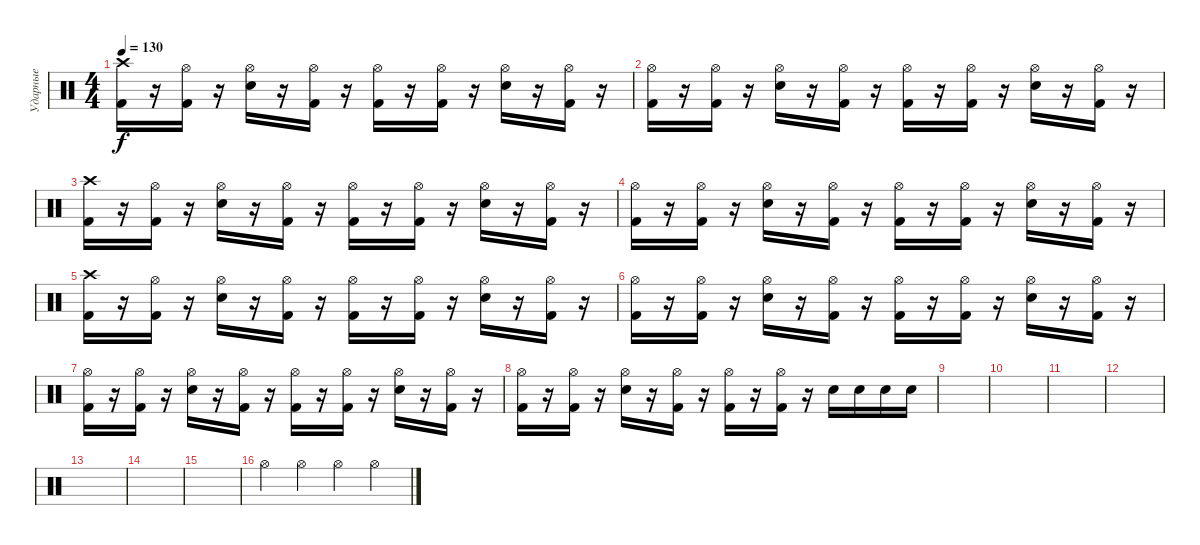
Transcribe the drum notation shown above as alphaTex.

\track ("Ударные" "Ударные") {instrument percussion}
\staff {score}
\articulation defaults
\ts (4 4)
\tempo 130
\clef neutral
\ks c
("Crash high (hit)" "Kick (hit) 2").16{dy f} r.16 ("Hi-Hat (open)" "Kick (hit) 2").16 r.16 ("Hi-Hat (open)" "Electric Snare (hit)").16 r.16 ("Hi-Hat (open)" "Kick (hit) 2").16 r.16 ("Hi-Hat (open)" "Kick (hit) 2").16 r.16 ("Hi-Hat (open)" "Kick (hit) 2").16 r.16 ("Hi-Hat (open)" "Electric Snare (hit)").16 r.16 ("Hi-Hat (open)" "Kick (hit) 2").16 r.16 |
("Hi-Hat (open)" "Kick (hit) 2").16 r.16 ("Hi-Hat (open)" "Kick (hit) 2").16 r.16 ("Hi-Hat (open)" "Electric Snare (hit)").16 r.16 ("Hi-Hat (open)" "Kick (hit) 2").16 r.16 ("Hi-Hat (open)" "Kick (hit) 2").16 r.16 ("Hi-Hat (open)" "Kick (hit) 2").16 r.16 ("Hi-Hat (open)" "Electric Snare (hit)").16 r.16 ("Hi-Hat (open)" "Kick (hit) 2").16 r.16 |
("Crash high (hit)" "Kick (hit) 2").16 r.16 ("Hi-Hat (open)" "Kick (hit) 2").16 r.16 ("Hi-Hat (open)" "Electric Snare (hit)").16 r.16 ("Hi-Hat (open)" "Kick (hit) 2").16 r.16 ("Hi-Hat (open)" "Kick (hit) 2").16 r.16 ("Hi-Hat (open)" "Kick (hit) 2").16 r.16 ("Hi-Hat (open)" "Electric Snare (hit)").16 r.16 ("Hi-Hat (open)" "Kick (hit) 2").16 r.16 |
("Hi-Hat (open)" "Kick (hit) 2").16 r.16 ("Hi-Hat (open)" "Kick (hit) 2").16 r.16 ("Hi-Hat (open)" "Electric Snare (hit)").16 r.16 ("Hi-Hat (open)" "Kick (hit) 2").16 r.16 ("Hi-Hat (open)" "Kick (hit) 2").16 r.16 ("Hi-Hat (open)" "Kick (hit) 2").16 r.16 ("Hi-Hat (open)" "Electric Snare (hit)").16 r.16 ("Hi-Hat (open)" "Kick (hit) 2").16 r.16 |
("Crash high (hit)" "Kick (hit) 2").16 r.16 ("Hi-Hat (open)" "Kick (hit) 2").16 r.16 ("Hi-Hat (open)" "Electric Snare (hit)").16 r.16 ("Hi-Hat (open)" "Kick (hit) 2").16 r.16 ("Hi-Hat (open)" "Kick (hit) 2").16 r.16 ("Hi-Hat (open)" "Kick (hit) 2").16 r.16 ("Hi-Hat (open)" "Electric Snare (hit)").16 r.16 ("Hi-Hat (open)" "Kick (hit) 2").16 r.16 |
("Hi-Hat (open)" "Kick (hit) 2").16 r.16 ("Hi-Hat (open)" "Kick (hit) 2").16 r.16 ("Hi-Hat (open)" "Electric Snare (hit)").16 r.16 ("Hi-Hat (open)" "Kick (hit) 2").16 r.16 ("Hi-Hat (open)" "Kick (hit) 2").16 r.16 ("Hi-Hat (open)" "Kick (hit) 2").16 r.16 ("Hi-Hat (open)" "Electric Snare (hit)").16 r.16 ("Hi-Hat (open)" "Kick (hit) 2").16 r.16 |
("Hi-Hat (open)" "Kick (hit) 2").16 r.16 ("Hi-Hat (open)" "Kick (hit) 2").16 r.16 ("Hi-Hat (open)" "Electric Snare (hit)").16 r.16 ("Hi-Hat (open)" "Kick (hit) 2").16 r.16 ("Hi-Hat (open)" "Kick (hit) 2").16 r.16 ("Hi-Hat (open)" "Kick (hit) 2").16 r.16 ("Hi-Hat (open)" "Electric Snare (hit)").16 r.16 ("Hi-Hat (open)" "Kick (hit) 2").16 r.16 |
("Hi-Hat (open)" "Kick (hit) 2").16 r.16 ("Hi-Hat (open)" "Kick (hit) 2").16 r.16 ("Hi-Hat (open)" "Electric Snare (hit)").16 r.16 ("Hi-Hat (open)" "Kick (hit) 2").16 r.16 ("Hi-Hat (open)" "Kick (hit) 2").16 r.16 ("Hi-Hat (open)" "Kick (hit) 2").16 r.16 "Electric Snare (hit)".16 "Electric Snare (hit)".16 "Electric Snare (hit)".16 "Electric Snare (hit)".16 |
|
|
|
|
|
|
|
"Hi-Hat (open)".4 "Hi-Hat (open)".4 "Hi-Hat (open)".4 "Hi-Hat (open)".4
